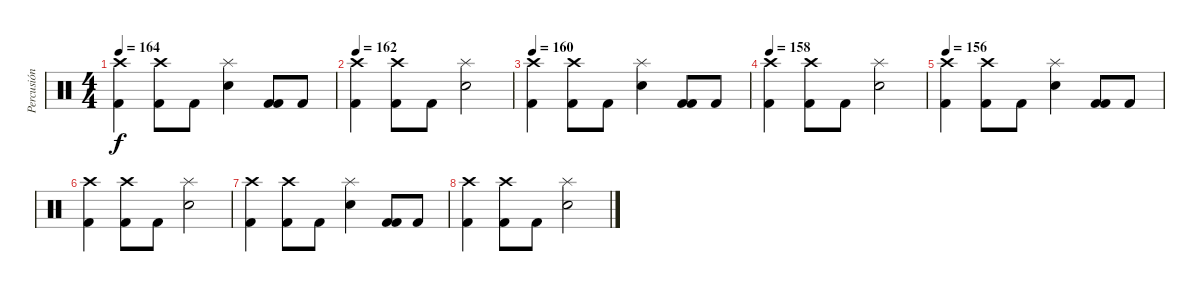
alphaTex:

\track ("Percusión" "Percusión") {instrument percussion}
\staff {score}
\articulation defaults
\ts (4 4)
\tempo 164
\clef neutral
\ks c
("Kick (hit) 2" "Crash high (hit)").4{dy f} ("Kick (hit) 2" "Crash high (hit)").8 "Kick (hit) 2".8 ("Splash (hit)" "Snare (hit) 2").4 ("Kick (hit) 2" "Kick (hit) 2").8 "Kick (hit) 2".8 |
\tempo 162
("Kick (hit) 2" "Crash high (hit)").4 ("Kick (hit) 2" "Crash high (hit)").8 "Kick (hit) 2".8 ("Splash (hit)" "Snare (hit) 2").2 |
\tempo 160
("Kick (hit) 2" "Crash high (hit)").4 ("Kick (hit) 2" "Crash high (hit)").8 "Kick (hit) 2".8 ("Splash (hit)" "Snare (hit) 2").4 ("Kick (hit) 2" "Kick (hit) 2").8 "Kick (hit) 2".8 |
\tempo 158
("Kick (hit) 2" "Crash high (hit)").4 ("Kick (hit) 2" "Crash high (hit)").8 "Kick (hit) 2".8 ("Splash (hit)" "Snare (hit) 2").2 |
\tempo 156
("Kick (hit) 2" "Crash high (hit)").4 ("Kick (hit) 2" "Crash high (hit)").8 "Kick (hit) 2".8 ("Splash (hit)" "Snare (hit) 2").4 ("Kick (hit) 2" "Kick (hit) 2").8 "Kick (hit) 2".8 |
("Kick (hit) 2" "Crash high (hit)").4 ("Kick (hit) 2" "Crash high (hit)").8 "Kick (hit) 2".8 ("Splash (hit)" "Snare (hit) 2").2 |
("Kick (hit) 2" "Crash high (hit)").4 ("Kick (hit) 2" "Crash high (hit)").8 "Kick (hit) 2".8 ("Splash (hit)" "Snare (hit) 2").4 ("Kick (hit) 2" "Kick (hit) 2").8 "Kick (hit) 2".8 |
("Kick (hit) 2" "Crash high (hit)").4 ("Kick (hit) 2" "Crash high (hit)").8 "Kick (hit) 2".8 ("Splash (hit)" "Snare (hit) 2").2
